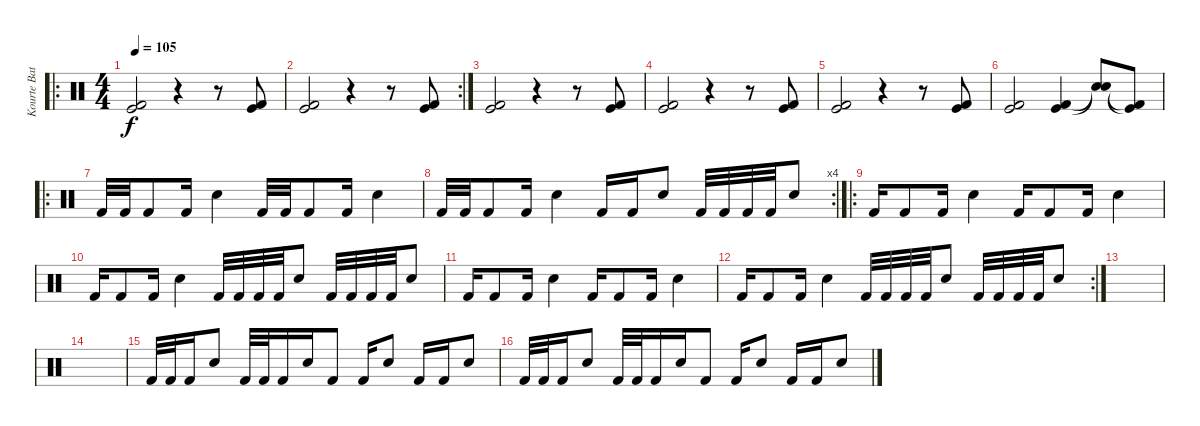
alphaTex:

\track ("Kourte Batt" "Kourte Bat") {instrument percussion}
\staff {score}
\articulation defaults
\ro
\ts (4 4)
\tempo 105
\clef neutral
\ks c
("Kick (hit) 2" "Kick (hit)").2{dy f} r.4 r.8 ("Kick (hit) 2" "Kick (hit)").8 |
\rc 2
("Kick (hit) 2" "Kick (hit)").2 r.4 r.8 ("Kick (hit) 2" "Kick (hit)").8 |
("Kick (hit) 2" "Kick (hit)").2 r.4 r.8 ("Kick (hit) 2" "Kick (hit)").8 |
("Kick (hit) 2" "Kick (hit)").2 r.4 r.8 ("Kick (hit) 2" "Kick (hit)").8 |
("Kick (hit) 2" "Kick (hit)").2 r.4 r.8 ("Kick (hit) 2" "Kick (hit)").8 |
("Kick (hit) 2" "Kick (hit)").2 ("Kick (hit) 2" "Kick (hit)").4 ("Snare (hit)"{t} "Snare (hit)"{t}).8 ("Kick (hit) 2"{t} "Kick (hit)"{t}).8 |
\ro "Kick (hit) 2".32 "Kick (hit) 2".32 "Kick (hit) 2".8 "Kick (hit) 2".16 "Electric Snare (hit)".4 "Kick (hit) 2".32 "Kick (hit) 2".32 "Kick (hit) 2".8 "Kick (hit) 2".16 "Electric Snare (hit)".4
|
\rc 4 "Kick (hit) 2".32 "Kick (hit) 2".32 "Kick (hit) 2".8 "Kick (hit) 2".16 "Electric Snare (hit)".4 "Kick (hit) 2".16 "Kick (hit) 2".16 "Electric Snare (hit)".8 "Kick (hit) 2".32 "Kick (hit) 2".32 "Kick (hit) 2".32 "Kick (hit) 2".32 "Electric Snare (hit)".8
|
\ro "Kick (hit) 2".16 "Kick (hit) 2".8 "Kick (hit) 2".16 "Electric Snare (hit)".4 "Kick (hit) 2".16 "Kick (hit) 2".8 "Kick (hit) 2".16 "Electric Snare (hit)".4
|
"Kick (hit) 2".16 "Kick (hit) 2".8 "Kick (hit) 2".16 "Electric Snare (hit)".4 "Kick (hit) 2".32 "Kick (hit) 2".32 "Kick (hit) 2".32 "Kick (hit) 2".32 "Electric Snare (hit)".8 "Kick (hit) 2".32 "Kick (hit) 2".32 "Kick (hit) 2".32 "Kick (hit) 2".32 "Electric Snare (hit)".8 |
"Kick (hit) 2".16 "Kick (hit) 2".8 "Kick (hit) 2".16 "Electric Snare (hit)".4 "Kick (hit) 2".16 "Kick (hit) 2".8 "Kick (hit) 2".16 "Electric Snare (hit)".4 |
\rc 2 "Kick (hit) 2".16 "Kick (hit) 2".8 "Kick (hit) 2".16 "Electric Snare (hit)".4 "Kick (hit) 2".32 "Kick (hit) 2".32 "Kick (hit) 2".32 "Kick (hit) 2".32 "Electric Snare (hit)".8 "Kick (hit) 2".32 "Kick (hit) 2".32 "Kick (hit) 2".32 "Kick (hit) 2".32 "Electric Snare (hit)".8
|
|
|
"Kick (hit) 2".32 "Kick (hit) 2".32 "Kick (hit) 2".16 "Electric Snare (hit)".8 "Kick (hit) 2".32 "Kick (hit) 2".32 "Kick (hit) 2".16 "Electric Snare (hit)".16 "Kick (hit) 2".8 "Kick (hit) 2".16 "Electric Snare (hit)".8 "Kick (hit) 2".16 "Kick (hit) 2".16 "Electric Snare (hit)".8 |
"Kick (hit) 2".32 "Kick (hit) 2".32 "Kick (hit) 2".16 "Electric Snare (hit)".8 "Kick (hit) 2".32 "Kick (hit) 2".32 "Kick (hit) 2".16 "Electric Snare (hit)".16 "Kick (hit) 2".8 "Kick (hit) 2".16 "Electric Snare (hit)".8 "Kick (hit) 2".16 "Kick (hit) 2".16 "Electric Snare (hit)".8
